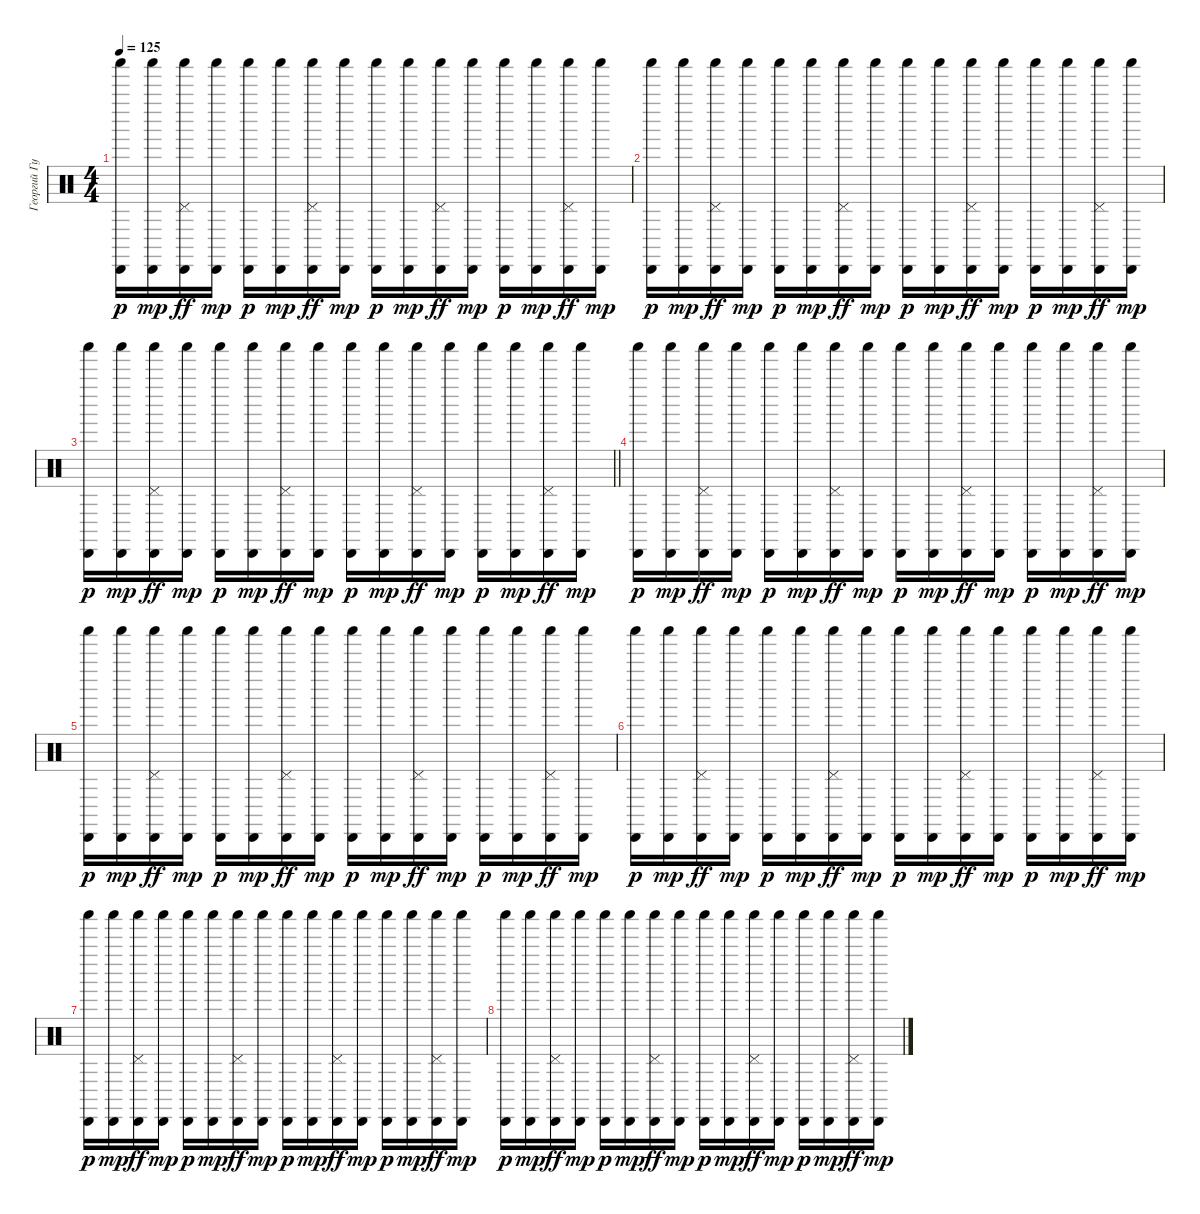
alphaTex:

\track ("Георгий Гурьянов_2" "Георгий Гу") {instrument percussion}
\staff {score}
\articulation defaults
\ts (4 4)
\tempo 125
\clef neutral
\ks c
("Cabasa (hit)" "Shaker (hit)").16{dy p} ("Cabasa (hit)" "Shaker (hit)").16{dy mp} ("Cabasa (hit)" "Shaker (hit)" "Pedal Hi-Hat (hit)").16{dy ff} ("Cabasa (hit)" "Shaker (hit)").16{dy mp} ("Cabasa (hit)" "Shaker (hit)").16{dy p} ("Cabasa (hit)" "Shaker (hit)").16{dy mp} ("Cabasa (hit)" "Shaker (hit)" "Pedal Hi-Hat (hit)").16{dy ff} ("Cabasa (hit)" "Shaker (hit)").16{dy mp} ("Cabasa (hit)" "Shaker (hit)").16{dy p} ("Cabasa (hit)" "Shaker (hit)").16{dy mp} ("Cabasa (hit)" "Shaker (hit)" "Pedal Hi-Hat (hit)").16{dy ff} ("Cabasa (hit)" "Shaker (hit)").16{dy mp} ("Cabasa (hit)" "Shaker (hit)").16{dy p} ("Cabasa (hit)" "Shaker (hit)").16{dy mp} ("Cabasa (hit)" "Shaker (hit)" "Pedal Hi-Hat (hit)").16{dy ff} ("Cabasa (hit)" "Shaker (hit)").16{dy mp} |
("Cabasa (hit)" "Shaker (hit)").16{dy p} ("Cabasa (hit)" "Shaker (hit)").16{dy mp} ("Cabasa (hit)" "Shaker (hit)" "Pedal Hi-Hat (hit)").16{dy ff} ("Cabasa (hit)" "Shaker (hit)").16{dy mp} ("Cabasa (hit)" "Shaker (hit)").16{dy p} ("Cabasa (hit)" "Shaker (hit)").16{dy mp} ("Cabasa (hit)" "Shaker (hit)" "Pedal Hi-Hat (hit)").16{dy ff} ("Cabasa (hit)" "Shaker (hit)").16{dy mp} ("Cabasa (hit)" "Shaker (hit)").16{dy p} ("Cabasa (hit)" "Shaker (hit)").16{dy mp} ("Cabasa (hit)" "Shaker (hit)" "Pedal Hi-Hat (hit)").16{dy ff} ("Cabasa (hit)" "Shaker (hit)").16{dy mp} ("Cabasa (hit)" "Shaker (hit)").16{dy p} ("Cabasa (hit)" "Shaker (hit)").16{dy mp} ("Cabasa (hit)" "Shaker (hit)" "Pedal Hi-Hat (hit)").16{dy ff} ("Cabasa (hit)" "Shaker (hit)").16{dy mp} |
\barLineRight lightlight
("Cabasa (hit)" "Shaker (hit)").16{dy p} ("Cabasa (hit)" "Shaker (hit)").16{dy mp} ("Cabasa (hit)" "Shaker (hit)" "Pedal Hi-Hat (hit)").16{dy ff} ("Cabasa (hit)" "Shaker (hit)").16{dy mp} ("Cabasa (hit)" "Shaker (hit)").16{dy p} ("Cabasa (hit)" "Shaker (hit)").16{dy mp} ("Cabasa (hit)" "Shaker (hit)" "Pedal Hi-Hat (hit)").16{dy ff} ("Cabasa (hit)" "Shaker (hit)").16{dy mp} ("Cabasa (hit)" "Shaker (hit)").16{dy p} ("Cabasa (hit)" "Shaker (hit)").16{dy mp} ("Cabasa (hit)" "Shaker (hit)" "Pedal Hi-Hat (hit)").16{dy ff} ("Cabasa (hit)" "Shaker (hit)").16{dy mp} ("Cabasa (hit)" "Shaker (hit)").16{dy p} ("Cabasa (hit)" "Shaker (hit)").16{dy mp} ("Cabasa (hit)" "Shaker (hit)" "Pedal Hi-Hat (hit)").16{dy ff} ("Cabasa (hit)" "Shaker (hit)").16{dy mp} |
("Cabasa (hit)" "Shaker (hit)").16{dy p} ("Cabasa (hit)" "Shaker (hit)").16{dy mp} ("Cabasa (hit)" "Shaker (hit)" "Pedal Hi-Hat (hit)").16{dy ff} ("Cabasa (hit)" "Shaker (hit)").16{dy mp} ("Cabasa (hit)" "Shaker (hit)").16{dy p} ("Cabasa (hit)" "Shaker (hit)").16{dy mp} ("Cabasa (hit)" "Shaker (hit)" "Pedal Hi-Hat (hit)").16{dy ff} ("Cabasa (hit)" "Shaker (hit)").16{dy mp} ("Cabasa (hit)" "Shaker (hit)").16{dy p} ("Cabasa (hit)" "Shaker (hit)").16{dy mp} ("Cabasa (hit)" "Shaker (hit)" "Pedal Hi-Hat (hit)").16{dy ff} ("Cabasa (hit)" "Shaker (hit)").16{dy mp} ("Cabasa (hit)" "Shaker (hit)").16{dy p} ("Cabasa (hit)" "Shaker (hit)").16{dy mp} ("Cabasa (hit)" "Shaker (hit)" "Pedal Hi-Hat (hit)").16{dy ff} ("Cabasa (hit)" "Shaker (hit)").16{dy mp} |
("Cabasa (hit)" "Shaker (hit)").16{dy p} ("Cabasa (hit)" "Shaker (hit)").16{dy mp} ("Cabasa (hit)" "Shaker (hit)" "Pedal Hi-Hat (hit)").16{dy ff} ("Cabasa (hit)" "Shaker (hit)").16{dy mp} ("Cabasa (hit)" "Shaker (hit)").16{dy p} ("Cabasa (hit)" "Shaker (hit)").16{dy mp} ("Cabasa (hit)" "Shaker (hit)" "Pedal Hi-Hat (hit)").16{dy ff} ("Cabasa (hit)" "Shaker (hit)").16{dy mp} ("Cabasa (hit)" "Shaker (hit)").16{dy p} ("Cabasa (hit)" "Shaker (hit)").16{dy mp} ("Cabasa (hit)" "Shaker (hit)" "Pedal Hi-Hat (hit)").16{dy ff} ("Cabasa (hit)" "Shaker (hit)").16{dy mp} ("Cabasa (hit)" "Shaker (hit)").16{dy p} ("Cabasa (hit)" "Shaker (hit)").16{dy mp} ("Cabasa (hit)" "Shaker (hit)" "Pedal Hi-Hat (hit)").16{dy ff} ("Cabasa (hit)" "Shaker (hit)").16{dy mp} |
("Cabasa (hit)" "Shaker (hit)").16{dy p} ("Cabasa (hit)" "Shaker (hit)").16{dy mp} ("Cabasa (hit)" "Shaker (hit)" "Pedal Hi-Hat (hit)").16{dy ff} ("Cabasa (hit)" "Shaker (hit)").16{dy mp} ("Cabasa (hit)" "Shaker (hit)").16{dy p} ("Cabasa (hit)" "Shaker (hit)").16{dy mp} ("Cabasa (hit)" "Shaker (hit)" "Pedal Hi-Hat (hit)").16{dy ff} ("Cabasa (hit)" "Shaker (hit)").16{dy mp} ("Cabasa (hit)" "Shaker (hit)").16{dy p} ("Cabasa (hit)" "Shaker (hit)").16{dy mp} ("Cabasa (hit)" "Shaker (hit)" "Pedal Hi-Hat (hit)").16{dy ff} ("Cabasa (hit)" "Shaker (hit)").16{dy mp} ("Cabasa (hit)" "Shaker (hit)").16{dy p} ("Cabasa (hit)" "Shaker (hit)").16{dy mp} ("Cabasa (hit)" "Shaker (hit)" "Pedal Hi-Hat (hit)").16{dy ff} ("Cabasa (hit)" "Shaker (hit)").16{dy mp} |
("Cabasa (hit)" "Shaker (hit)").16{dy p} ("Cabasa (hit)" "Shaker (hit)").16{dy mp} ("Cabasa (hit)" "Shaker (hit)" "Pedal Hi-Hat (hit)").16{dy ff} ("Cabasa (hit)" "Shaker (hit)").16{dy mp} ("Cabasa (hit)" "Shaker (hit)").16{dy p} ("Cabasa (hit)" "Shaker (hit)").16{dy mp} ("Cabasa (hit)" "Shaker (hit)" "Pedal Hi-Hat (hit)").16{dy ff} ("Cabasa (hit)" "Shaker (hit)").16{dy mp} ("Cabasa (hit)" "Shaker (hit)").16{dy p} ("Cabasa (hit)" "Shaker (hit)").16{dy mp} ("Cabasa (hit)" "Shaker (hit)" "Pedal Hi-Hat (hit)").16{dy ff} ("Cabasa (hit)" "Shaker (hit)").16{dy mp} ("Cabasa (hit)" "Shaker (hit)").16{dy p} ("Cabasa (hit)" "Shaker (hit)").16{dy mp} ("Cabasa (hit)" "Shaker (hit)" "Pedal Hi-Hat (hit)").16{dy ff} ("Cabasa (hit)" "Shaker (hit)").16{dy mp} |
("Cabasa (hit)" "Shaker (hit)").16{dy p} ("Cabasa (hit)" "Shaker (hit)").16{dy mp} ("Cabasa (hit)" "Shaker (hit)" "Pedal Hi-Hat (hit)").16{dy ff} ("Cabasa (hit)" "Shaker (hit)").16{dy mp} ("Cabasa (hit)" "Shaker (hit)").16{dy p} ("Cabasa (hit)" "Shaker (hit)").16{dy mp} ("Cabasa (hit)" "Shaker (hit)" "Pedal Hi-Hat (hit)").16{dy ff} ("Cabasa (hit)" "Shaker (hit)").16{dy mp} ("Cabasa (hit)" "Shaker (hit)").16{dy p} ("Cabasa (hit)" "Shaker (hit)").16{dy mp} ("Cabasa (hit)" "Shaker (hit)" "Pedal Hi-Hat (hit)").16{dy ff} ("Cabasa (hit)" "Shaker (hit)").16{dy mp} ("Cabasa (hit)" "Shaker (hit)").16{dy p} ("Cabasa (hit)" "Shaker (hit)").16{dy mp} ("Cabasa (hit)" "Shaker (hit)" "Pedal Hi-Hat (hit)").16{dy ff} ("Cabasa (hit)" "Shaker (hit)").16{dy mp}
